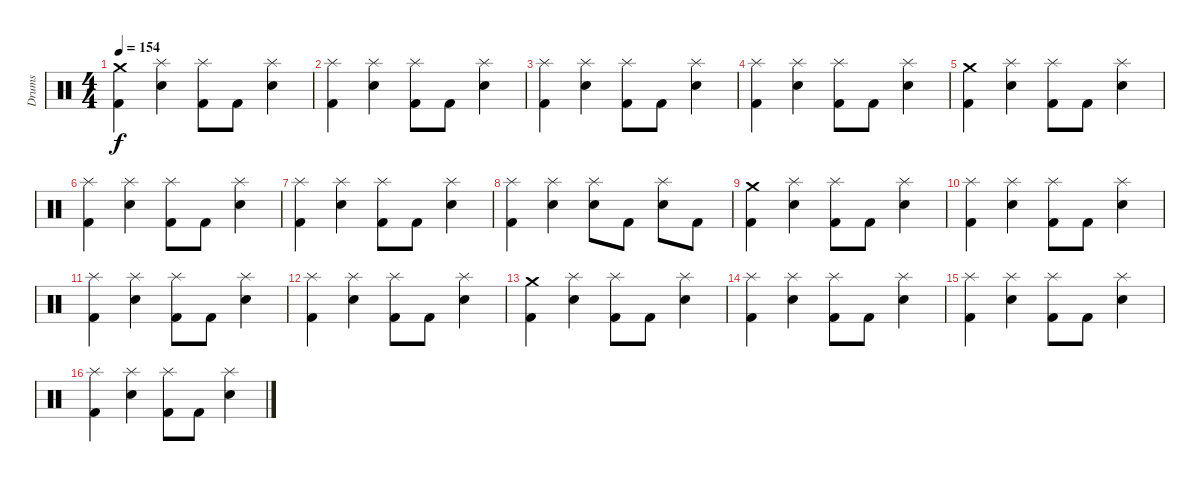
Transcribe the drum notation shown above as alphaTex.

\track ("Drums" "Drums") {instrument percussion}
\staff {score}
\articulation defaults
\ts (4 4)
\tempo 154
\clef neutral
\ks c
("Kick (hit) 2" "Crash medium (hit)").4{dy f} ("Splash (hit)" "Electric Snare (hit)").4 ("Kick (hit) 2" "Splash (hit)").8 "Kick (hit) 2".8 ("Splash (hit)" "Electric Snare (hit)").4 |
("Kick (hit) 2" "Splash (hit)").4 ("Splash (hit)" "Electric Snare (hit)").4 ("Kick (hit) 2" "Splash (hit)").8 "Kick (hit) 2".8 ("Splash (hit)" "Electric Snare (hit)").4 |
("Kick (hit) 2" "Splash (hit)").4 ("Electric Snare (hit)" "Splash (hit)").4 ("Kick (hit) 2" "Splash (hit)").8 "Kick (hit) 2".8 ("Electric Snare (hit)" "Splash (hit)").4 |
("Kick (hit) 2" "Splash (hit)").4 ("Electric Snare (hit)" "Splash (hit)").4 ("Kick (hit) 2" "Splash (hit)").8 "Kick (hit) 2".8 ("Electric Snare (hit)" "Splash (hit)").4 |
("Kick (hit) 2" "Crash medium (hit)").4 ("Splash (hit)" "Electric Snare (hit)").4 ("Kick (hit) 2" "Splash (hit)").8 "Kick (hit) 2".8 ("Splash (hit)" "Electric Snare (hit)").4 |
("Kick (hit) 2" "Splash (hit)").4 ("Splash (hit)" "Electric Snare (hit)").4 ("Kick (hit) 2" "Splash (hit)").8 "Kick (hit) 2".8 ("Splash (hit)" "Electric Snare (hit)").4 |
("Kick (hit) 2" "Splash (hit)").4 ("Electric Snare (hit)" "Splash (hit)").4 ("Kick (hit) 2" "Splash (hit)").8 "Kick (hit) 2".8 ("Electric Snare (hit)" "Splash (hit)").4 |
("Kick (hit) 2" "Splash (hit)").4 ("Electric Snare (hit)" "Splash (hit)").4 ("Snare (hit) 2" "Splash (hit)").8 "Kick (hit) 2".8 ("Electric Snare (hit)" "Splash (hit)").8 "Kick (hit) 2".8 |
("Kick (hit) 2" "Crash medium (hit)").4 ("Splash (hit)" "Electric Snare (hit)").4 ("Kick (hit) 2" "Splash (hit)").8 "Kick (hit) 2".8 ("Splash (hit)" "Electric Snare (hit)").4 |
("Kick (hit) 2" "Splash (hit)").4 ("Splash (hit)" "Electric Snare (hit)").4 ("Kick (hit) 2" "Splash (hit)").8 "Kick (hit) 2".8 ("Splash (hit)" "Electric Snare (hit)").4 |
("Kick (hit) 2" "Splash (hit)").4 ("Electric Snare (hit)" "Splash (hit)").4 ("Kick (hit) 2" "Splash (hit)").8 "Kick (hit) 2".8 ("Electric Snare (hit)" "Splash (hit)").4 |
("Kick (hit) 2" "Splash (hit)").4 ("Electric Snare (hit)" "Splash (hit)").4 ("Kick (hit) 2" "Splash (hit)").8 "Kick (hit) 2".8 ("Electric Snare (hit)" "Splash (hit)").4 |
("Kick (hit) 2" "Crash medium (hit)").4 ("Splash (hit)" "Electric Snare (hit)").4 ("Kick (hit) 2" "Splash (hit)").8 "Kick (hit) 2".8 ("Splash (hit)" "Electric Snare (hit)").4 |
("Kick (hit) 2" "Splash (hit)").4 ("Splash (hit)" "Electric Snare (hit)").4 ("Kick (hit) 2" "Splash (hit)").8 "Kick (hit) 2".8 ("Splash (hit)" "Electric Snare (hit)").4 |
("Kick (hit) 2" "Splash (hit)").4 ("Electric Snare (hit)" "Splash (hit)").4 ("Kick (hit) 2" "Splash (hit)").8 "Kick (hit) 2".8 ("Electric Snare (hit)" "Splash (hit)").4 |
("Kick (hit) 2" "Splash (hit)").4 ("Electric Snare (hit)" "Splash (hit)").4 ("Kick (hit) 2" "Splash (hit)").8 "Kick (hit) 2".8 ("Electric Snare (hit)" "Splash (hit)").4
